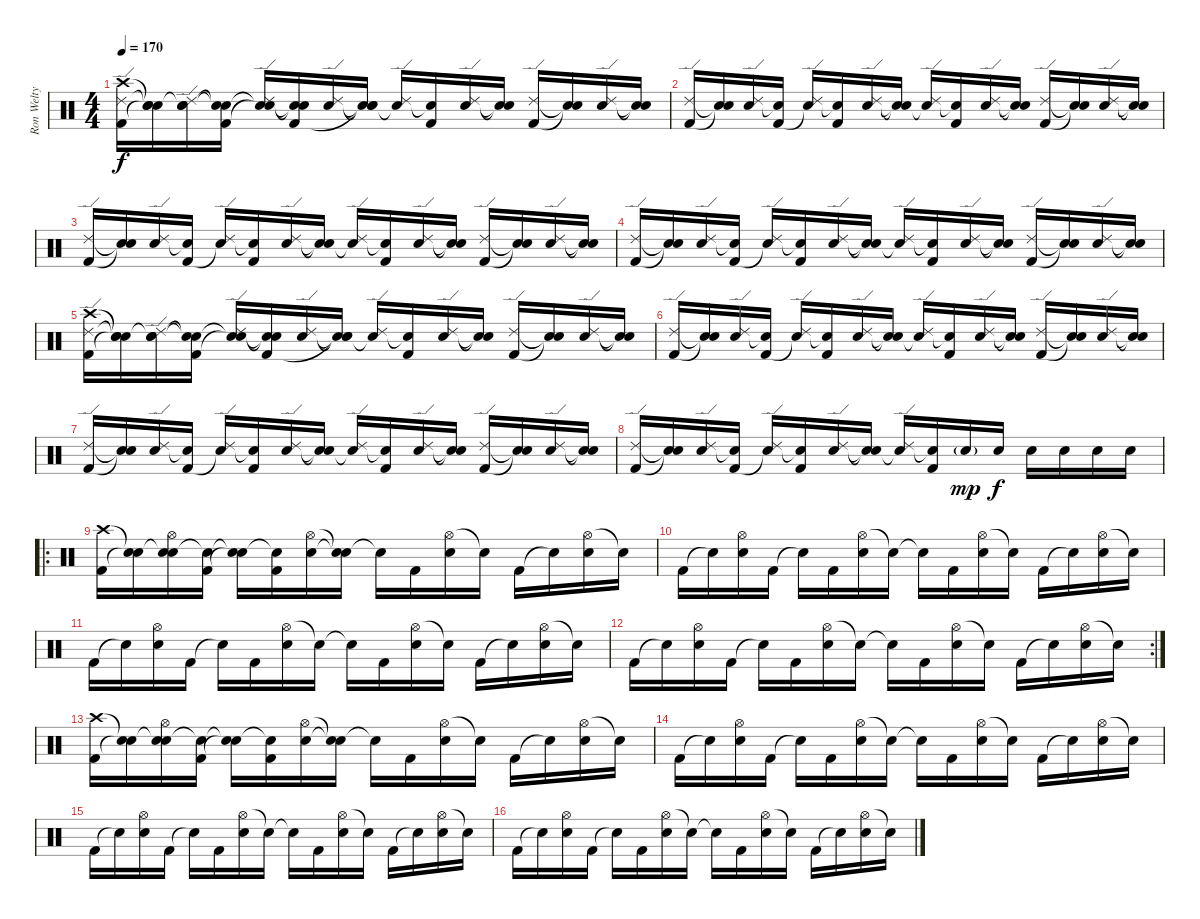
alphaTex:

\track ("Ron Welty" "Ron Welty") {instrument percussion}
\staff {score}
\articulation defaults
\ts (4 4)
\tempo 170
\clef neutral
\ks c
("Crash high (hit)" "Ride (edge) 2" "Kick (hit) 2").16{dy f} ("Snare (hit)"{t} "Snare (hit)"{t} "Snare (hit)"{t}).16 ("Snare (hit)"{t} "Ride (edge) 2" "Electric Snare (hit)").16 ("Snare (hit)"{t} "Snare (hit)"{t} "Kick (hit) 2").16 ("Snare (hit)"{t} "Ride (edge) 2" "Snare (hit)"{t}).16 ("Snare (hit)"{t} "Snare (hit)"{t} "Kick (hit) 2").16 ("Ride (edge) 2" "Electric Snare (hit)").16 ("Snare (hit)"{t} "Snare (hit)"{t} "Snare (hit)"{t}).16 ("Ride (edge) 2" "Snare (hit)"{t}).16 ("Snare (hit)"{t} "Kick (hit) 2").16 ("Ride (edge) 2" "Electric Snare (hit)").16 ("Snare (hit)"{t} "Snare (hit)"{t}).16 ("Ride (edge) 2" "Kick (hit) 2").16 ("Snare (hit)"{t} "Snare (hit)"{t}).16 ("Ride (edge) 2" "Electric Snare (hit)").16 ("Snare (hit)"{t} "Snare (hit)"{t}).16 |
("Ride (edge) 2" "Kick (hit) 2").16 ("Snare (hit)"{t} "Snare (hit)"{t}).16 ("Ride (edge) 2" "Electric Snare (hit)").16 ("Snare (hit)"{t} "Kick (hit) 2").16 ("Ride (edge) 2" "Snare (hit)"{t}).16 ("Snare (hit)"{t} "Kick (hit) 2").16 ("Ride (edge) 2" "Electric Snare (hit)").16 ("Snare (hit)"{t} "Snare (hit)"{t}).16 ("Ride (edge) 2" "Snare (hit)"{t}).16 ("Snare (hit)"{t} "Kick (hit) 2").16 ("Ride (edge) 2" "Electric Snare (hit)").16 ("Snare (hit)"{t} "Snare (hit)"{t}).16 ("Ride (edge) 2" "Kick (hit) 2").16 ("Snare (hit)"{t} "Snare (hit)"{t}).16 ("Ride (edge) 2" "Electric Snare (hit)").16 ("Snare (hit)"{t} "Snare (hit)"{t}).16 |
("Ride (edge) 2" "Kick (hit) 2").16 ("Snare (hit)"{t} "Snare (hit)"{t}).16 ("Ride (edge) 2" "Electric Snare (hit)").16 ("Snare (hit)"{t} "Kick (hit) 2").16 ("Ride (edge) 2" "Snare (hit)"{t}).16 ("Snare (hit)"{t} "Kick (hit) 2").16 ("Ride (edge) 2" "Electric Snare (hit)").16 ("Snare (hit)"{t} "Snare (hit)"{t}).16 ("Ride (edge) 2" "Snare (hit)"{t}).16 ("Snare (hit)"{t} "Kick (hit) 2").16 ("Ride (edge) 2" "Electric Snare (hit)").16 ("Snare (hit)"{t} "Snare (hit)"{t}).16 ("Ride (edge) 2" "Kick (hit) 2").16 ("Snare (hit)"{t} "Snare (hit)"{t}).16 ("Ride (edge) 2" "Electric Snare (hit)").16 ("Snare (hit)"{t} "Snare (hit)"{t}).16 |
("Ride (edge) 2" "Kick (hit) 2").16 ("Snare (hit)"{t} "Snare (hit)"{t}).16 ("Ride (edge) 2" "Electric Snare (hit)").16 ("Snare (hit)"{t} "Kick (hit) 2").16 ("Ride (edge) 2" "Snare (hit)"{t}).16 ("Snare (hit)"{t} "Kick (hit) 2").16 ("Ride (edge) 2" "Electric Snare (hit)").16 ("Snare (hit)"{t} "Snare (hit)"{t}).16 ("Ride (edge) 2" "Snare (hit)"{t}).16 ("Snare (hit)"{t} "Kick (hit) 2").16 ("Ride (edge) 2" "Electric Snare (hit)").16 ("Snare (hit)"{t} "Snare (hit)"{t}).16 ("Ride (edge) 2" "Kick (hit) 2").16 ("Snare (hit)"{t} "Snare (hit)"{t}).16 ("Ride (edge) 2" "Electric Snare (hit)").16 ("Snare (hit)"{t} "Snare (hit)"{t}).16 |
("Crash high (hit)" "Ride (edge) 2" "Kick (hit) 2").16 ("Snare (hit)"{t} "Snare (hit)"{t} "Snare (hit)"{t}).16 ("Snare (hit)"{t} "Ride (edge) 2" "Electric Snare (hit)").16 ("Snare (hit)"{t} "Snare (hit)"{t} "Kick (hit) 2").16 ("Snare (hit)"{t} "Ride (edge) 2" "Snare (hit)"{t}).16 ("Snare (hit)"{t} "Snare (hit)"{t} "Kick (hit) 2").16 ("Ride (edge) 2" "Electric Snare (hit)").16 ("Snare (hit)"{t} "Snare (hit)"{t} "Snare (hit)"{t}).16 ("Ride (edge) 2" "Snare (hit)"{t}).16 ("Snare (hit)"{t} "Kick (hit) 2").16 ("Ride (edge) 2" "Electric Snare (hit)").16 ("Snare (hit)"{t} "Snare (hit)"{t}).16 ("Ride (edge) 2" "Kick (hit) 2").16 ("Snare (hit)"{t} "Snare (hit)"{t}).16 ("Ride (edge) 2" "Electric Snare (hit)").16 ("Snare (hit)"{t} "Snare (hit)"{t}).16 |
("Ride (edge) 2" "Kick (hit) 2").16 ("Snare (hit)"{t} "Snare (hit)"{t}).16 ("Ride (edge) 2" "Electric Snare (hit)").16 ("Snare (hit)"{t} "Kick (hit) 2").16 ("Ride (edge) 2" "Snare (hit)"{t}).16 ("Snare (hit)"{t} "Kick (hit) 2").16 ("Ride (edge) 2" "Electric Snare (hit)").16 ("Snare (hit)"{t} "Snare (hit)"{t}).16 ("Ride (edge) 2" "Snare (hit)"{t}).16 ("Snare (hit)"{t} "Kick (hit) 2").16 ("Ride (edge) 2" "Electric Snare (hit)").16 ("Snare (hit)"{t} "Snare (hit)"{t}).16 ("Ride (edge) 2" "Kick (hit) 2").16 ("Snare (hit)"{t} "Snare (hit)"{t}).16 ("Ride (edge) 2" "Electric Snare (hit)").16 ("Snare (hit)"{t} "Snare (hit)"{t}).16 |
("Ride (edge) 2" "Kick (hit) 2").16 ("Snare (hit)"{t} "Snare (hit)"{t}).16 ("Ride (edge) 2" "Electric Snare (hit)").16 ("Snare (hit)"{t} "Kick (hit) 2").16 ("Ride (edge) 2" "Snare (hit)"{t}).16 ("Snare (hit)"{t} "Kick (hit) 2").16 ("Ride (edge) 2" "Electric Snare (hit)").16 ("Snare (hit)"{t} "Snare (hit)"{t}).16 ("Ride (edge) 2" "Snare (hit)"{t}).16 ("Snare (hit)"{t} "Kick (hit) 2").16 ("Ride (edge) 2" "Electric Snare (hit)").16 ("Snare (hit)"{t} "Snare (hit)"{t}).16 ("Ride (edge) 2" "Kick (hit) 2").16 ("Snare (hit)"{t} "Snare (hit)"{t}).16 ("Ride (edge) 2" "Electric Snare (hit)").16 ("Snare (hit)"{t} "Snare (hit)"{t}).16 |
("Ride (edge) 2" "Kick (hit) 2").16 ("Snare (hit)"{t} "Snare (hit)"{t}).16 ("Ride (edge) 2" "Electric Snare (hit)").16 ("Snare (hit)"{t} "Kick (hit) 2").16 ("Ride (edge) 2" "Snare (hit)"{t}).16 ("Snare (hit)"{t} "Kick (hit) 2").16 ("Ride (edge) 2" "Electric Snare (hit)").16 ("Snare (hit)"{t} "Snare (hit)"{t}).16 ("Ride (edge) 2" "Snare (hit)"{t}).16 ("Snare (hit)"{t} "Kick (hit) 2").16 "Electric Snare (hit)"{g}.16{dy mp} "Electric Snare (hit)".16{dy f} "Electric Snare (hit)".16 "Electric Snare (hit)".16 "Electric Snare (hit)".16 "Electric Snare (hit)".16 |
\ro
("Crash high (hit)" "Kick (hit) 2").16 ("Snare (hit)"{t} "Snare (hit)"{t}).16 ("Snare (hit)"{t} "Hi-Hat (open)" "Electric Snare (hit)").16 ("Snare (hit)"{t} "Kick (hit) 2").16 ("Snare (hit)"{t} "Snare (hit)"{t}).16 ("Snare (hit)"{t} "Kick (hit) 2").16 ("Hi-Hat (open)" "Electric Snare (hit)").16 ("Snare (hit)"{t} "Snare (hit)"{t}).16 "Snare (hit)"{t}.16 "Kick (hit) 2".16 ("Hi-Hat (open)" "Electric Snare (hit)").16 "Snare (hit)"{t}.16 "Kick (hit) 2".16 "Snare (hit)"{t}.16 ("Hi-Hat (open)" "Electric Snare (hit)").16 "Snare (hit)"{t}.16 |
"Kick (hit) 2".16 "Snare (hit)"{t}.16 ("Hi-Hat (open)" "Electric Snare (hit)").16 "Kick (hit) 2".16 "Snare (hit)"{t}.16 "Kick (hit) 2".16 ("Hi-Hat (open)" "Electric Snare (hit)").16 "Snare (hit)"{t}.16 "Snare (hit)"{t}.16 "Kick (hit) 2".16 ("Hi-Hat (open)" "Electric Snare (hit)").16 "Snare (hit)"{t}.16 "Kick (hit) 2".16 "Snare (hit)"{t}.16 ("Hi-Hat (open)" "Electric Snare (hit)").16 "Snare (hit)"{t}.16 |
"Kick (hit) 2".16 "Snare (hit)"{t}.16 ("Hi-Hat (open)" "Electric Snare (hit)").16 "Kick (hit) 2".16 "Snare (hit)"{t}.16 "Kick (hit) 2".16 ("Hi-Hat (open)" "Electric Snare (hit)").16 "Snare (hit)"{t}.16 "Snare (hit)"{t}.16 "Kick (hit) 2".16 ("Hi-Hat (open)" "Electric Snare (hit)").16 "Snare (hit)"{t}.16 "Kick (hit) 2".16 "Snare (hit)"{t}.16 ("Hi-Hat (open)" "Electric Snare (hit)").16 "Snare (hit)"{t}.16 |
\rc 2 "Kick (hit) 2".16 "Snare (hit)"{t}.16
("Hi-Hat (open)" "Electric Snare (hit)").16 "Kick (hit) 2".16 "Snare (hit)"{t}.16 "Kick (hit) 2".16 ("Hi-Hat (open)" "Electric Snare (hit)").16 "Snare (hit)"{t}.16 "Snare (hit)"{t}.16 "Kick (hit) 2".16 ("Hi-Hat (open)" "Electric Snare (hit)").16 "Snare (hit)"{t}.16 "Kick (hit) 2".16 "Snare (hit)"{t}.16 ("Hi-Hat (open)" "Electric Snare (hit)").16 "Snare (hit)"{t}.16 |
("Crash high (hit)" "Kick (hit) 2").16 ("Snare (hit)"{t} "Snare (hit)"{t}).16 ("Snare (hit)"{t} "Hi-Hat (open)" "Electric Snare (hit)").16 ("Snare (hit)"{t} "Kick (hit) 2").16 ("Snare (hit)"{t} "Snare (hit)"{t}).16 ("Snare (hit)"{t} "Kick (hit) 2").16 ("Hi-Hat (open)" "Electric Snare (hit)").16 ("Snare (hit)"{t} "Snare (hit)"{t}).16 "Snare (hit)"{t}.16 "Kick (hit) 2".16 ("Hi-Hat (open)" "Electric Snare (hit)").16 "Snare (hit)"{t}.16 "Kick (hit) 2".16 "Snare (hit)"{t}.16 ("Hi-Hat (open)" "Electric Snare (hit)").16 "Snare (hit)"{t}.16 |
"Kick (hit) 2".16 "Snare (hit)"{t}.16 ("Hi-Hat (open)" "Electric Snare (hit)").16 "Kick (hit) 2".16 "Snare (hit)"{t}.16 "Kick (hit) 2".16 ("Hi-Hat (open)" "Electric Snare (hit)").16 "Snare (hit)"{t}.16 "Snare (hit)"{t}.16 "Kick (hit) 2".16 ("Hi-Hat (open)" "Electric Snare (hit)").16 "Snare (hit)"{t}.16 "Kick (hit) 2".16 "Snare (hit)"{t}.16 ("Hi-Hat (open)" "Electric Snare (hit)").16 "Snare (hit)"{t}.16 |
"Kick (hit) 2".16 "Snare (hit)"{t}.16 ("Hi-Hat (open)" "Electric Snare (hit)").16 "Kick (hit) 2".16 "Snare (hit)"{t}.16 "Kick (hit) 2".16 ("Hi-Hat (open)" "Electric Snare (hit)").16 "Snare (hit)"{t}.16 "Snare (hit)"{t}.16 "Kick (hit) 2".16 ("Hi-Hat (open)" "Electric Snare (hit)").16 "Snare (hit)"{t}.16 "Kick (hit) 2".16 "Snare (hit)"{t}.16 ("Hi-Hat (open)" "Electric Snare (hit)").16 "Snare (hit)"{t}.16 |
"Kick (hit) 2".16 "Snare (hit)"{t}.16 ("Hi-Hat (open)" "Electric Snare (hit)").16 "Kick (hit) 2".16 "Snare (hit)"{t}.16 "Kick (hit) 2".16 ("Hi-Hat (open)" "Electric Snare (hit)").16 "Snare (hit)"{t}.16 "Snare (hit)"{t}.16 "Kick (hit) 2".16 ("Hi-Hat (open)" "Electric Snare (hit)").16 "Snare (hit)"{t}.16 "Kick (hit) 2".16 "Snare (hit)"{t}.16 ("Hi-Hat (open)" "Electric Snare (hit)").16 "Snare (hit)"{t}.16
